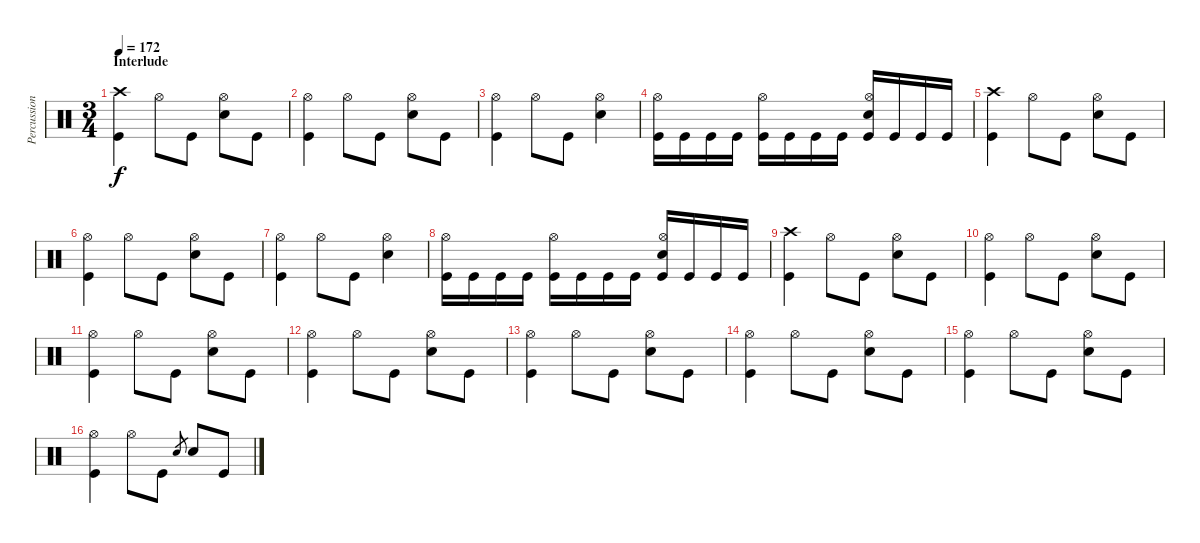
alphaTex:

\track ("Percussion" "Percussion") {instrument percussion}
\staff {score}
\articulation defaults
\ts (3 4)
\section ("" "Interlude")
\tempo 172
\clef neutral
\ks c
("Crash high (hit)" "Kick (hit)").4{dy f} "Hi-Hat (open)".8 "Kick (hit)".8 ("Hi-Hat (open)" "Snare (hit) 2").8 "Kick (hit)".8 |
("Hi-Hat (open)" "Kick (hit)").4 "Hi-Hat (open)".8 "Kick (hit)".8 ("Hi-Hat (open)" "Snare (hit) 2").8 "Kick (hit)".8 |
("Hi-Hat (open)" "Kick (hit)").4 "Hi-Hat (open)".8 "Kick (hit)".8 ("Hi-Hat (open)" "Snare (hit) 2").4 |
("Hi-Hat (open)" "Kick (hit)").16 "Kick (hit)".16 "Kick (hit)".16 "Kick (hit)".16 ("Hi-Hat (open)" "Kick (hit)").16 "Kick (hit)".16 "Kick (hit)".16 "Kick (hit)".16 ("Hi-Hat (open)" "Snare (hit) 2" "Kick (hit)").16 "Kick (hit)".16 "Kick (hit)".16 "Kick (hit)".16 |
("Crash high (hit)" "Kick (hit)").4 "Hi-Hat (open)".8 "Kick (hit)".8 ("Hi-Hat (open)" "Snare (hit) 2").8 "Kick (hit)".8 |
("Hi-Hat (open)" "Kick (hit)").4 "Hi-Hat (open)".8 "Kick (hit)".8 ("Hi-Hat (open)" "Snare (hit) 2").8 "Kick (hit)".8 |
("Hi-Hat (open)" "Kick (hit)").4 "Hi-Hat (open)".8 "Kick (hit)".8 ("Hi-Hat (open)" "Snare (hit) 2").4 |
("Hi-Hat (open)" "Kick (hit)").16 "Kick (hit)".16 "Kick (hit)".16 "Kick (hit)".16 ("Hi-Hat (open)" "Kick (hit)").16 "Kick (hit)".16 "Kick (hit)".16 "Kick (hit)".16 ("Hi-Hat (open)" "Snare (hit) 2" "Kick (hit)").16 "Kick (hit)".16 "Kick (hit)".16 "Kick (hit)".16 |
("Crash high (hit)" "Kick (hit)").4 "Hi-Hat (open)".8 "Kick (hit)".8 ("Hi-Hat (open)" "Snare (hit) 2").8 "Kick (hit)".8 |
("Hi-Hat (open)" "Kick (hit)").4 "Hi-Hat (open)".8 "Kick (hit)".8 ("Hi-Hat (open)" "Snare (hit) 2").8 "Kick (hit)".8 |
("Hi-Hat (open)" "Kick (hit)").4 "Hi-Hat (open)".8 "Kick (hit)".8 ("Hi-Hat (open)" "Snare (hit) 2").8 "Kick (hit)".8 |
("Hi-Hat (open)" "Kick (hit)").4 "Hi-Hat (open)".8 "Kick (hit)".8 ("Hi-Hat (open)" "Snare (hit) 2").8 "Kick (hit)".8 |
("Hi-Hat (open)" "Kick (hit)").4 "Hi-Hat (open)".8 "Kick (hit)".8 ("Hi-Hat (open)" "Snare (hit) 2").8 "Kick (hit)".8 |
("Hi-Hat (open)" "Kick (hit)").4 "Hi-Hat (open)".8 "Kick (hit)".8 ("Hi-Hat (open)" "Snare (hit) 2").8 "Kick (hit)".8 |
("Hi-Hat (open)" "Kick (hit)").4 "Hi-Hat (open)".8 "Kick (hit)".8 ("Hi-Hat (open)" "Snare (hit) 2").8 "Kick (hit)".8 |
("Hi-Hat (open)" "Kick (hit)").4 "Hi-Hat (open)".8 "Kick (hit)".8 "Snare (hit) 2".8{gr} "Snare (hit) 2".8 "Kick (hit)".8
